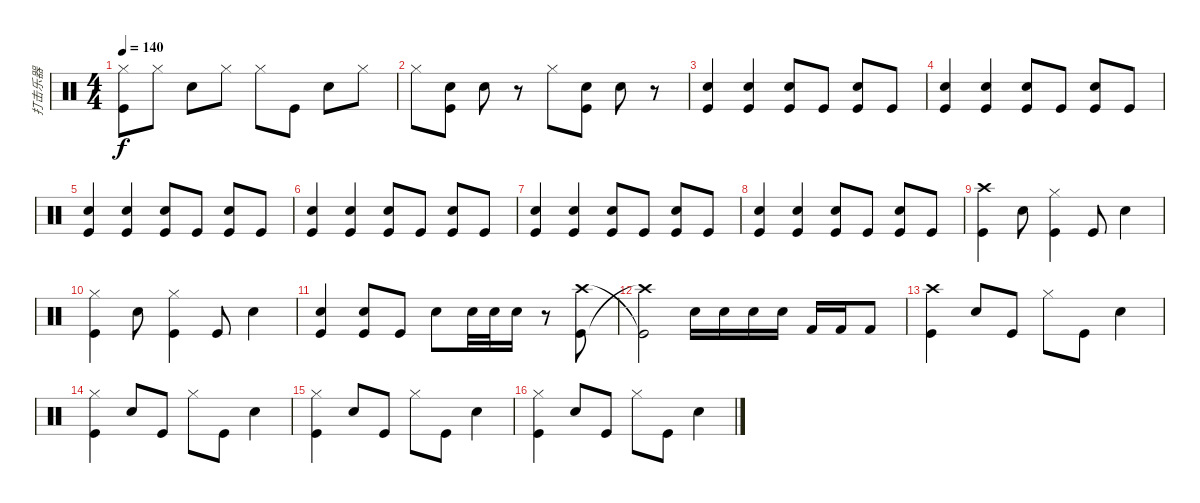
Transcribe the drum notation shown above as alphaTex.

\track ("打击乐器" "打击乐器") {instrument percussion}
\staff {score}
\articulation defaults
\ts (4 4)
\tempo 140
\clef neutral
\ks c
("Hi-Hat (closed)" "Kick (hit)").8{dy f} "Hi-Hat (closed)".8 "Snare (hit) 2".8 "Hi-Hat (closed)".8 "Hi-Hat (closed)".8 "Kick (hit)".8 "Snare (hit) 2".8 "Hi-Hat (closed)".8 |
"Hi-Hat (closed)".8 ("Snare (hit) 2" "Kick (hit)").8 "Snare (hit) 2".8 r.8 "Hi-Hat (closed)".8 ("Snare (hit) 2" "Kick (hit)").8 "Snare (hit) 2".8 r.8 |
("Kick (hit)" "Snare (hit) 2").4 ("Kick (hit)" "Snare (hit) 2").4 ("Kick (hit)" "Snare (hit) 2").8 "Kick (hit)".8 ("Snare (hit) 2" "Kick (hit)").8 "Kick (hit)".8 |
("Kick (hit)" "Snare (hit) 2").4 ("Kick (hit)" "Snare (hit) 2").4 ("Kick (hit)" "Snare (hit) 2").8 "Kick (hit)".8 ("Snare (hit) 2" "Kick (hit)").8 "Kick (hit)".8 |
("Kick (hit)" "Snare (hit) 2").4 ("Kick (hit)" "Snare (hit) 2").4 ("Kick (hit)" "Snare (hit) 2").8 "Kick (hit)".8 ("Snare (hit) 2" "Kick (hit)").8 "Kick (hit)".8 |
("Kick (hit)" "Snare (hit) 2").4 ("Kick (hit)" "Snare (hit) 2").4 ("Kick (hit)" "Snare (hit) 2").8 "Kick (hit)".8 ("Snare (hit) 2" "Kick (hit)").8 "Kick (hit)".8 |
("Kick (hit)" "Snare (hit) 2").4 ("Kick (hit)" "Snare (hit) 2").4 ("Kick (hit)" "Snare (hit) 2").8 "Kick (hit)".8 ("Snare (hit) 2" "Kick (hit)").8 "Kick (hit)".8 |
("Kick (hit)" "Snare (hit) 2").4 ("Kick (hit)" "Snare (hit) 2").4 ("Kick (hit)" "Snare (hit) 2").8 "Kick (hit)".8 ("Snare (hit) 2" "Kick (hit)").8 "Kick (hit)".8 |
("Crash high (hit)" "Kick (hit)").4 "Snare (hit) 2".8 ("Hi-Hat (closed)" "Kick (hit)").4 "Kick (hit)".8 "Snare (hit) 2".4 |
("Hi-Hat (closed)" "Kick (hit)").4 "Snare (hit) 2".8 ("Hi-Hat (closed)" "Kick (hit)").4 "Kick (hit)".8 "Snare (hit) 2".4 |
("Kick (hit)" "Snare (hit) 2").4 ("Kick (hit)" "Snare (hit) 2").8 "Kick (hit)".8 "Snare (hit) 2".8 "Snare (hit) 2".32 "Snare (hit) 2".32 "Snare (hit) 2".16 r.8 ("Kick (hit)" "Crash high (hit)").8 |
("Crash high (hit)"{t} "Kick (hit)"{t}).2 "Snare (hit) 2".16 "Snare (hit) 2".16 "Snare (hit) 2".16 "Snare (hit) 2".16 "Kick (hit) 2".16 "Kick (hit) 2".16 "Kick (hit) 2".8 |
("Crash high (hit)" "Kick (hit)").4 "Snare (hit) 2".8 "Kick (hit)".8 "Hi-Hat (closed)".8 "Kick (hit)".8 "Snare (hit) 2".4 |
("Hi-Hat (closed)" "Kick (hit)").4 "Snare (hit) 2".8 "Kick (hit)".8 "Hi-Hat (closed)".8 "Kick (hit)".8 "Snare (hit) 2".4 |
("Hi-Hat (closed)" "Kick (hit)").4 "Snare (hit) 2".8 "Kick (hit)".8 "Hi-Hat (closed)".8 "Kick (hit)".8 "Snare (hit) 2".4 |
("Hi-Hat (closed)" "Kick (hit)").4 "Snare (hit) 2".8 "Kick (hit)".8 "Hi-Hat (closed)".8 "Kick (hit)".8 "Snare (hit) 2".4
